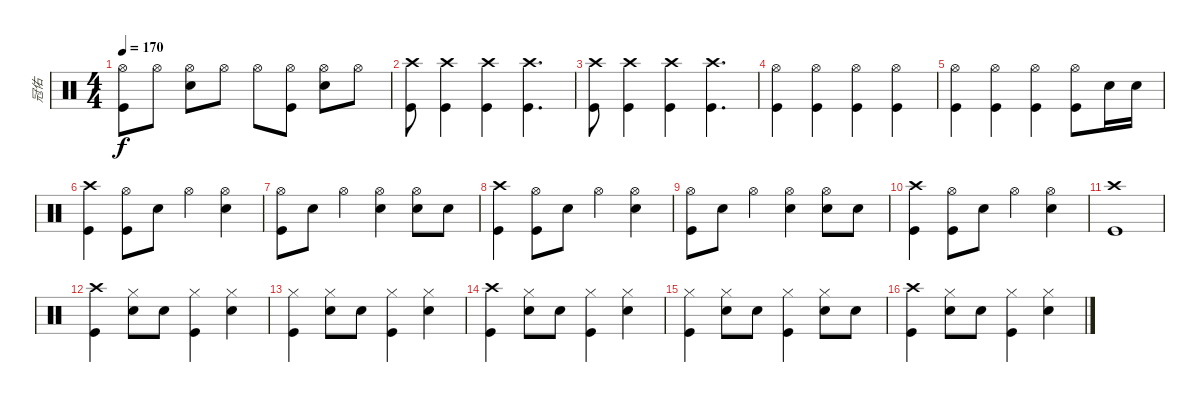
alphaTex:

\track ("冠佑" "冠佑") {instrument percussion}
\staff {score}
\articulation defaults
\ts (4 4)
\tempo 170
\clef neutral
\ks c
("Hi-Hat (open)" "Kick (hit)").8{dy f} "Hi-Hat (open)".8 ("Hi-Hat (open)" "Snare (hit) 2").8 "Hi-Hat (open)".8 "Hi-Hat (open)".8 ("Hi-Hat (open)" "Kick (hit)").8 ("Hi-Hat (open)" "Snare (hit) 2").8 "Hi-Hat (open)".8 |
("Crash high (hit)" "Kick (hit)").8 ("Crash high (hit)" "Kick (hit)").4 ("Crash high (hit)" "Kick (hit)").4 ("Crash high (hit)" "Kick (hit)").4{d} |
("Crash high (hit)" "Kick (hit)").8 ("Crash high (hit)" "Kick (hit)").4 ("Crash high (hit)" "Kick (hit)").4 ("Crash high (hit)" "Kick (hit)").4{d} |
("Hi-Hat (open)" "Kick (hit)").4 ("Hi-Hat (open)" "Kick (hit)").4 ("Hi-Hat (open)" "Kick (hit)").4 ("Hi-Hat (open)" "Kick (hit)").4 |
("Hi-Hat (open)" "Kick (hit)").4 ("Hi-Hat (open)" "Kick (hit)").4 ("Hi-Hat (open)" "Kick (hit)").4 ("Hi-Hat (open)" "Kick (hit)").8 "Snare (hit) 2".16 "Snare (hit) 2".16 |
("Crash high (hit)" "Kick (hit)").4 ("Hi-Hat (open)" "Kick (hit)").8 "Snare (hit) 2".8 "Hi-Hat (open)".4 ("Hi-Hat (open)" "Snare (hit) 2").4 |
("Hi-Hat (open)" "Kick (hit)").8 "Snare (hit) 2".8 "Hi-Hat (open)".4 ("Hi-Hat (open)" "Snare (hit) 2").4 ("Hi-Hat (open)" "Snare (hit) 2").8 "Snare (hit) 2".8 |
("Crash high (hit)" "Kick (hit)").4 ("Hi-Hat (open)" "Kick (hit)").8 "Snare (hit) 2".8 "Hi-Hat (open)".4 ("Hi-Hat (open)" "Snare (hit) 2").4 |
("Hi-Hat (open)" "Kick (hit)").8 "Snare (hit) 2".8 "Hi-Hat (open)".4 ("Hi-Hat (open)" "Snare (hit) 2").4 ("Hi-Hat (open)" "Snare (hit) 2").8 "Snare (hit) 2".8 |
("Crash high (hit)" "Kick (hit)").4 ("Hi-Hat (open)" "Kick (hit)").8 "Snare (hit) 2".8 "Hi-Hat (open)".4 ("Hi-Hat (open)" "Snare (hit) 2").4 |
("Crash high (hit)" "Kick (hit)").1 |
("Crash high (hit)" "Kick (hit)").4 ("Hi-Hat (closed)" "Snare (hit) 2").8 "Snare (hit) 2".8 ("Hi-Hat (closed)" "Kick (hit)").4 ("Hi-Hat (closed)" "Snare (hit) 2").4 |
("Hi-Hat (closed)" "Kick (hit)").4 ("Hi-Hat (closed)" "Snare (hit) 2").8 "Snare (hit) 2".8 ("Hi-Hat (closed)" "Kick (hit)").4 ("Hi-Hat (closed)" "Snare (hit) 2").4 |
("Crash high (hit)" "Kick (hit)").4 ("Hi-Hat (closed)" "Snare (hit) 2").8 "Snare (hit) 2".8 ("Hi-Hat (closed)" "Kick (hit)").4 ("Hi-Hat (closed)" "Snare (hit) 2").4 |
("Hi-Hat (closed)" "Kick (hit)").4 ("Hi-Hat (closed)" "Snare (hit) 2").8 "Snare (hit) 2".8 ("Hi-Hat (closed)" "Kick (hit)").4 ("Hi-Hat (closed)" "Snare (hit) 2").8 "Snare (hit) 2".8 |
("Crash high (hit)" "Kick (hit)").4 ("Hi-Hat (closed)" "Snare (hit) 2").8 "Snare (hit) 2".8 ("Hi-Hat (closed)" "Kick (hit)").4 ("Hi-Hat (closed)" "Snare (hit) 2").4
